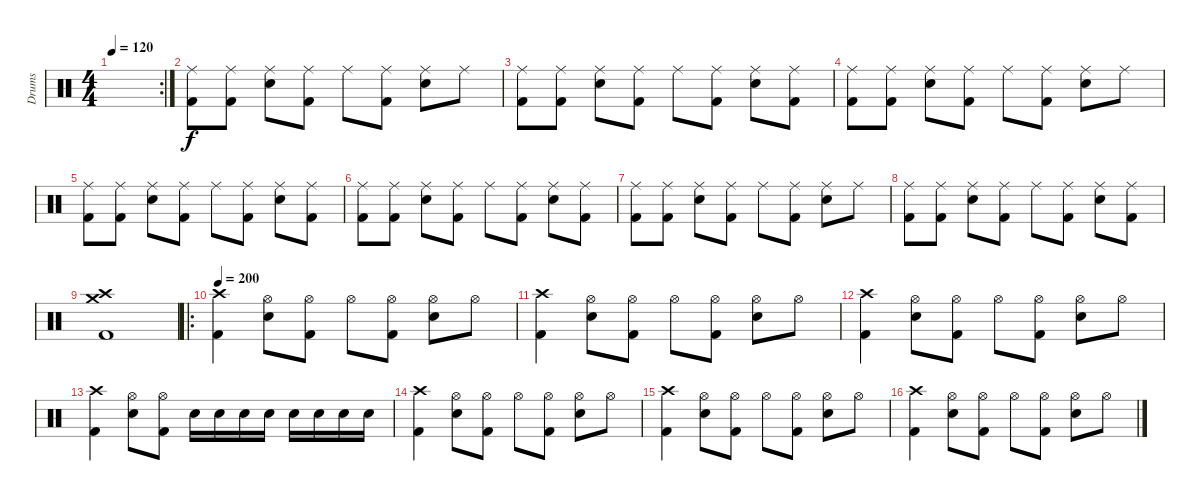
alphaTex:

\track ("Drums" "Drums") {instrument percussion}
\staff {score}
\articulation defaults
\rc 2
\ts (4 4)
\tempo 120
\clef neutral
\ks c
|
("Ride (middle)" "Kick (hit) 2").8{volume 13} ("Ride (middle)" "Kick (hit) 2").8 ("Ride (middle)" "Electric Snare (hit)").8 ("Ride (middle)" "Kick (hit) 2").8 "Ride (middle)".8 ("Ride (middle)" "Kick (hit) 2").8 ("Ride (middle)" "Electric Snare (hit)").8 "Ride (middle)".8 |
("Ride (middle)" "Kick (hit) 2").8 ("Ride (middle)" "Kick (hit) 2").8 ("Ride (middle)" "Electric Snare (hit)").8 ("Ride (middle)" "Kick (hit) 2").8 "Ride (middle)".8 ("Ride (middle)" "Kick (hit) 2").8 ("Ride (middle)" "Electric Snare (hit)").8 ("Ride (middle)" "Kick (hit) 2").8 |
("Ride (middle)" "Kick (hit) 2").8 ("Ride (middle)" "Kick (hit) 2").8 ("Ride (middle)" "Electric Snare (hit)").8 ("Ride (middle)" "Kick (hit) 2").8 "Ride (middle)".8 ("Ride (middle)" "Kick (hit) 2").8 ("Ride (middle)" "Electric Snare (hit)").8 "Ride (middle)".8 |
("Ride (middle)" "Kick (hit) 2").8 ("Ride (middle)" "Kick (hit) 2").8 ("Ride (middle)" "Electric Snare (hit)").8 ("Ride (middle)" "Kick (hit) 2").8 "Ride (middle)".8 ("Ride (middle)" "Kick (hit) 2").8 ("Ride (middle)" "Electric Snare (hit)").8 ("Ride (middle)" "Kick (hit) 2").8 |
("Ride (middle)" "Kick (hit) 2").8 ("Ride (middle)" "Kick (hit) 2").8 ("Ride (middle)" "Electric Snare (hit)").8 ("Ride (middle)" "Kick (hit) 2").8 "Ride (middle)".8 ("Ride (middle)" "Kick (hit) 2").8 ("Ride (middle)" "Electric Snare (hit)").8 ("Ride (middle)" "Kick (hit) 2").8 |
("Ride (middle)" "Kick (hit) 2").8 ("Ride (middle)" "Kick (hit) 2").8 ("Ride (middle)" "Electric Snare (hit)").8 ("Ride (middle)" "Kick (hit) 2").8 "Ride (middle)".8 ("Ride (middle)" "Kick (hit) 2").8 ("Ride (middle)" "Electric Snare (hit)").8 "Ride (middle)".8 |
("Ride (middle)" "Kick (hit) 2").8 ("Ride (middle)" "Kick (hit) 2").8 ("Ride (middle)" "Electric Snare (hit)").8 ("Ride (middle)" "Kick (hit) 2").8 "Ride (middle)".8 ("Ride (middle)" "Kick (hit) 2").8 ("Ride (middle)" "Electric Snare (hit)").8 ("Ride (middle)" "Kick (hit) 2").8 |
("Crash high (hit)" "Crash medium (hit)" "Kick (hit) 2").1 |
\ro
\tempo 200
("Crash high (hit)" "Kick (hit) 2").4 ("Hi-Hat (open)" "Electric Snare (hit)").8 ("Hi-Hat (open)" "Kick (hit) 2").8 "Hi-Hat (open)".8 ("Hi-Hat (open)" "Kick (hit) 2").8 ("Hi-Hat (open)" "Electric Snare (hit)").8 "Hi-Hat (open)".8 |
("Crash high (hit)" "Kick (hit) 2").4 ("Hi-Hat (open)" "Electric Snare (hit)").8 ("Hi-Hat (open)" "Kick (hit) 2").8 "Hi-Hat (open)".8 ("Hi-Hat (open)" "Kick (hit) 2").8 ("Hi-Hat (open)" "Electric Snare (hit)").8 "Hi-Hat (open)".8 |
("Crash high (hit)" "Kick (hit) 2").4 ("Hi-Hat (open)" "Electric Snare (hit)").8 ("Hi-Hat (open)" "Kick (hit) 2").8 "Hi-Hat (open)".8 ("Hi-Hat (open)" "Kick (hit) 2").8 ("Hi-Hat (open)" "Electric Snare (hit)").8 "Hi-Hat (open)".8 |
("Crash high (hit)" "Kick (hit) 2").4 ("Hi-Hat (open)" "Electric Snare (hit)").8 ("Hi-Hat (open)" "Kick (hit) 2").8 "Electric Snare (hit)".16 "Electric Snare (hit)".16 "Electric Snare (hit)".16 "Electric Snare (hit)".16 "Electric Snare (hit)".16 "Electric Snare (hit)".16 "Electric Snare (hit)".16 "Electric Snare (hit)".16 |
("Crash high (hit)" "Kick (hit) 2").4 ("Hi-Hat (open)" "Electric Snare (hit)").8 ("Hi-Hat (open)" "Kick (hit) 2").8 "Hi-Hat (open)".8 ("Hi-Hat (open)" "Kick (hit) 2").8 ("Hi-Hat (open)" "Electric Snare (hit)").8 "Hi-Hat (open)".8 |
("Crash high (hit)" "Kick (hit) 2").4 ("Hi-Hat (open)" "Electric Snare (hit)").8 ("Hi-Hat (open)" "Kick (hit) 2").8 "Hi-Hat (open)".8 ("Hi-Hat (open)" "Kick (hit) 2").8 ("Hi-Hat (open)" "Electric Snare (hit)").8 "Hi-Hat (open)".8 |
("Crash high (hit)" "Kick (hit) 2").4 ("Hi-Hat (open)" "Electric Snare (hit)").8 ("Hi-Hat (open)" "Kick (hit) 2").8 "Hi-Hat (open)".8 ("Hi-Hat (open)" "Kick (hit) 2").8 ("Hi-Hat (open)" "Electric Snare (hit)").8 "Hi-Hat (open)".8
